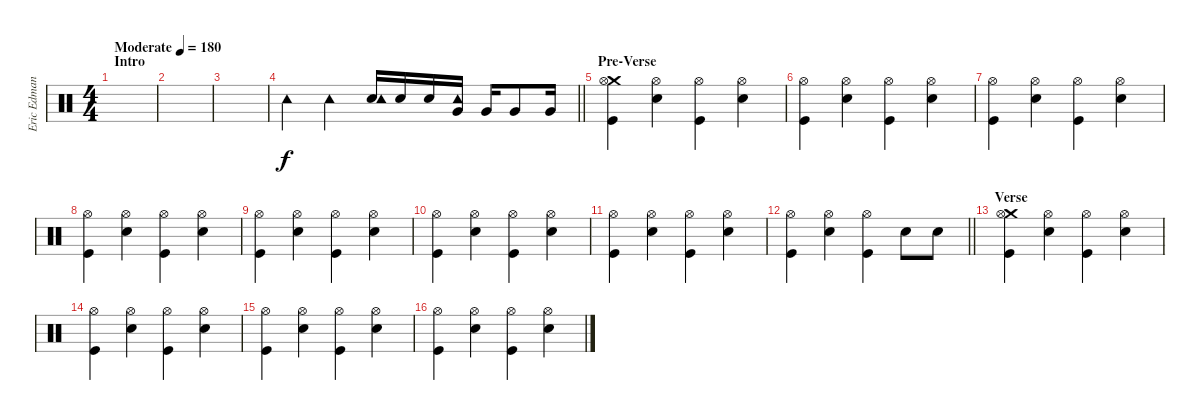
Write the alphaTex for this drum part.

\track ("Eric Edman - Drums" "Eric Edman") {instrument percussion}
\staff {score}
\articulation defaults
\ts (4 4)
\section ("" "Intro")
\tempo (180 "Moderate")
\clef neutral
\ks c
|
|
|
\barLineRight lightlight "Tambourine (hit)".4 "Tambourine (hit)".4
("Snare (hit) 2" "Tambourine (hit)").16 "Snare (hit) 2".16 "Snare (hit) 2".16 ("Very Low Tom (hit)" "Tambourine (hit)").16 "Very Low Tom (hit)".16 "Very Low Tom (hit)".8 "Very Low Tom (hit)".16 |
\section ("" "Pre-Verse")
("Crash medium (hit)" "Hi-Hat (open)" "Kick (hit)").4 ("Hi-Hat (open)" "Snare (hit) 2").4 ("Hi-Hat (open)" "Kick (hit)").4 ("Hi-Hat (open)" "Snare (hit) 2").4 |
("Hi-Hat (open)" "Kick (hit)").4 ("Hi-Hat (open)" "Snare (hit) 2").4 ("Hi-Hat (open)" "Kick (hit)").4 ("Hi-Hat (open)" "Snare (hit) 2").4 |
("Hi-Hat (open)" "Kick (hit)").4 ("Hi-Hat (open)" "Snare (hit) 2").4 ("Hi-Hat (open)" "Kick (hit)").4 ("Hi-Hat (open)" "Snare (hit) 2").4 |
("Hi-Hat (open)" "Kick (hit)").4 ("Hi-Hat (open)" "Snare (hit) 2").4 ("Hi-Hat (open)" "Kick (hit)").4 ("Hi-Hat (open)" "Snare (hit) 2").4 |
("Hi-Hat (open)" "Kick (hit)").4 ("Hi-Hat (open)" "Snare (hit) 2").4 ("Hi-Hat (open)" "Kick (hit)").4 ("Hi-Hat (open)" "Snare (hit) 2").4 |
("Hi-Hat (open)" "Kick (hit)").4 ("Hi-Hat (open)" "Snare (hit) 2").4 ("Hi-Hat (open)" "Kick (hit)").4 ("Hi-Hat (open)" "Snare (hit) 2").4 |
("Hi-Hat (open)" "Kick (hit)").4 ("Hi-Hat (open)" "Snare (hit) 2").4 ("Hi-Hat (open)" "Kick (hit)").4 ("Hi-Hat (open)" "Snare (hit) 2").4 |
\barLineRight lightlight
("Hi-Hat (open)" "Kick (hit)").4 ("Hi-Hat (open)" "Snare (hit) 2").4 ("Hi-Hat (open)" "Kick (hit)").4 "Snare (hit) 2".8 "Snare (hit) 2".8 |
\section ("" "Verse")
("Crash medium (hit)" "Hi-Hat (open)" "Kick (hit)").4 ("Hi-Hat (open)" "Snare (hit) 2").4 ("Hi-Hat (open)" "Kick (hit)").4 ("Hi-Hat (open)" "Snare (hit) 2").4 |
("Hi-Hat (open)" "Kick (hit)").4 ("Hi-Hat (open)" "Snare (hit) 2").4 ("Hi-Hat (open)" "Kick (hit)").4 ("Hi-Hat (open)" "Snare (hit) 2").4 |
("Hi-Hat (open)" "Kick (hit)").4 ("Hi-Hat (open)" "Snare (hit) 2").4 ("Hi-Hat (open)" "Kick (hit)").4 ("Hi-Hat (open)" "Snare (hit) 2").4 |
("Hi-Hat (open)" "Kick (hit)").4 ("Hi-Hat (open)" "Snare (hit) 2").4 ("Hi-Hat (open)" "Kick (hit)").4 ("Hi-Hat (open)" "Snare (hit) 2").4
